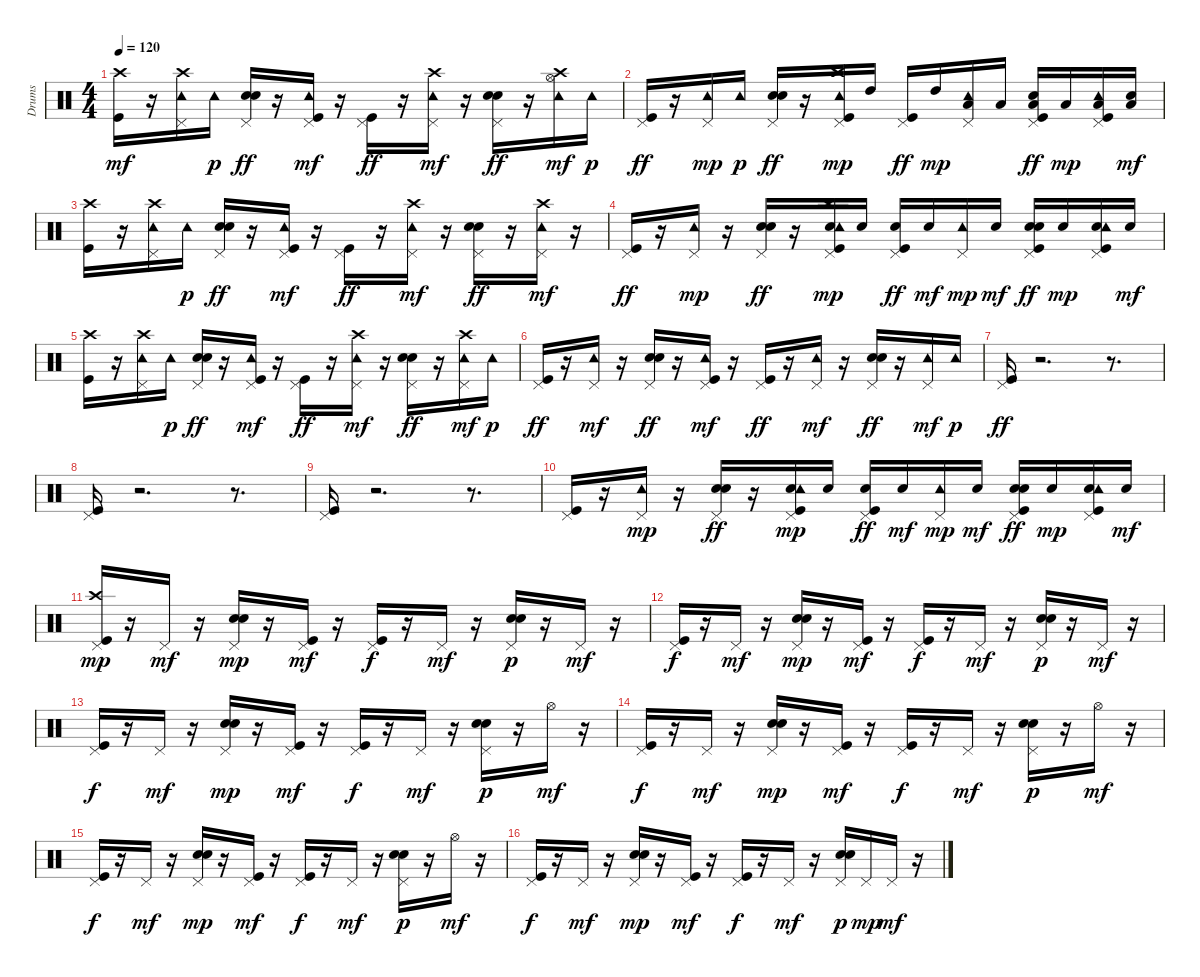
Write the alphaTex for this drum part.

\track ("Drums   " "Drums   ") {instrument percussion}
\staff {score}
\articulation defaults
\ts (4 4)
\tempo 120
\clef neutral
\ks c
("Kick (hit)" "Crash high (hit)").16{dy mf} r.16 ("Crash high (hit)" "Pedal Hi-Hat (hit)" "Tambourine (hit)").16 "Tambourine (hit)".16{dy p} ("Electric Snare (hit)" "Pedal Hi-Hat (hit)" "Hand Clap (hit)").16{dy ff} r.16 ("Kick (hit)" "Pedal Hi-Hat (hit)" "Tambourine (hit)").16{dy mf} r.16 ("Kick (hit)" "Pedal Hi-Hat (hit)").16{dy ff} r.16 ("Crash high (hit)" "Pedal Hi-Hat (hit)" "Tambourine (hit)").16{dy mf} r.16 ("Electric Snare (hit)" "Pedal Hi-Hat (hit)" "Hand Clap (hit)").16{dy ff} r.16 ("Hi-Hat (open)" "Crash high (hit)" "Tambourine (hit)").16{dy mf} "Tambourine (hit)".16{dy p} |
("Kick (hit)" "Pedal Hi-Hat (hit)").16{dy ff} r.16 ("Pedal Hi-Hat (hit)" "Tambourine (hit)").16{dy mp} "Tambourine (hit)".16{dy p} ("Electric Snare (hit)" "Pedal Hi-Hat (hit)" "Hand Clap (hit)").16{dy ff} r.16 ("Kick (hit)" "Crash high (hit)" "Pedal Hi-Hat (hit)" "Tambourine (hit)").16{dy mp} "High Tom (hit)".16 ("Kick (hit)" "Pedal Hi-Hat (hit)").16{dy ff} "High Tom (hit)".16{dy mp} ("Low Tom (hit)" "Pedal Hi-Hat (hit)" "Tambourine (hit)").16 "Low Tom (hit)".16 ("Kick (hit)" "Low Tom (hit)" "Pedal Hi-Hat (hit)" "Hand Clap (hit)").16{dy ff} "Low Tom (hit)".16{dy mp} ("Kick (hit)" "Low Floor Tom (hit)" "Pedal Hi-Hat (hit)" "Tambourine (hit)").16 ("Low Floor Tom (hit)" "Electric Snare (hit)").16{dy mf} |
("Kick (hit)" "Crash high (hit)").16 r.16 ("Crash high (hit)" "Pedal Hi-Hat (hit)" "Tambourine (hit)").16 "Tambourine (hit)".16{dy p} ("Electric Snare (hit)" "Pedal Hi-Hat (hit)" "Hand Clap (hit)").16{dy ff} r.16 ("Kick (hit)" "Pedal Hi-Hat (hit)" "Tambourine (hit)").16{dy mf} r.16 ("Kick (hit)" "Pedal Hi-Hat (hit)").16{dy ff} r.16 ("Crash high (hit)" "Pedal Hi-Hat (hit)" "Tambourine (hit)").16{dy mf} r.16 ("Electric Snare (hit)" "Pedal Hi-Hat (hit)" "Hand Clap (hit)").16{dy ff} r.16 ("Crash high (hit)" "Pedal Hi-Hat (hit)" "Tambourine (hit)").16{dy mf} r.16 |
("Kick (hit)" "Pedal Hi-Hat (hit)").16{dy ff} r.16 ("Pedal Hi-Hat (hit)" "Tambourine (hit)").16{dy mp} r.16 ("Electric Snare (hit)" "Pedal Hi-Hat (hit)" "Hand Clap (hit)").16{dy ff} r.16 ("Kick (hit)" "Crash high (hit)" "Electric Snare (hit)" "Pedal Hi-Hat (hit)" "Tambourine (hit)").16{dy mp} "Electric Snare (hit)".16 ("Kick (hit)" "Electric Snare (hit)" "Pedal Hi-Hat (hit)").16{dy ff} "Electric Snare (hit)".16{dy mf} ("Pedal Hi-Hat (hit)" "Tambourine (hit)").16{dy mp} "Electric Snare (hit)".16{dy mf} ("Kick (hit)" "Electric Snare (hit)" "Pedal Hi-Hat (hit)" "Hand Clap (hit)").16{dy ff} "Electric Snare (hit)".16{dy mp} ("Kick (hit)" "Electric Snare (hit)" "Pedal Hi-Hat (hit)" "Tambourine (hit)").16 "Electric Snare (hit)".16{dy mf} |
("Kick (hit)" "Crash high (hit)").16 r.16 ("Crash high (hit)" "Pedal Hi-Hat (hit)" "Tambourine (hit)").16 "Tambourine (hit)".16{dy p} ("Electric Snare (hit)" "Pedal Hi-Hat (hit)" "Hand Clap (hit)").16{dy ff} r.16 ("Kick (hit)" "Pedal Hi-Hat (hit)" "Tambourine (hit)").16{dy mf} r.16 ("Kick (hit)" "Pedal Hi-Hat (hit)").16{dy ff} r.16 ("Crash high (hit)" "Pedal Hi-Hat (hit)" "Tambourine (hit)").16{dy mf} r.16 ("Electric Snare (hit)" "Pedal Hi-Hat (hit)" "Hand Clap (hit)").16{dy ff} r.16 ("Crash high (hit)" "Pedal Hi-Hat (hit)" "Tambourine (hit)").16{dy mf} "Tambourine (hit)".16{dy p} |
("Kick (hit)" "Pedal Hi-Hat (hit)").16{dy ff} r.16 ("Pedal Hi-Hat (hit)" "Tambourine (hit)").16{dy mf} r.16 ("Electric Snare (hit)" "Pedal Hi-Hat (hit)" "Hand Clap (hit)").16{dy ff} r.16 ("Kick (hit)" "Pedal Hi-Hat (hit)" "Tambourine (hit)").16{dy mf} r.16 ("Kick (hit)" "Pedal Hi-Hat (hit)").16{dy ff} r.16 ("Pedal Hi-Hat (hit)" "Tambourine (hit)").16{dy mf} r.16 ("Electric Snare (hit)" "Pedal Hi-Hat (hit)" "Hand Clap (hit)").16{dy ff} r.16 ("Pedal Hi-Hat (hit)" "Tambourine (hit)").16{dy mf} "Tambourine (hit)".16{dy p} |
("Kick (hit)" "Pedal Hi-Hat (hit)").16{dy ff} r.2{d} r.8{d} |
("Kick (hit)" "Pedal Hi-Hat (hit)").16 r.2{d} r.8{d} |
("Kick (hit)" "Pedal Hi-Hat (hit)").16 r.2{d} r.8{d} |
("Kick (hit)" "Pedal Hi-Hat (hit)").16 r.16 ("Pedal Hi-Hat (hit)" "Tambourine (hit)").16{dy mp} r.16 ("Electric Snare (hit)" "Pedal Hi-Hat (hit)" "Hand Clap (hit)").16{dy ff} r.16 ("Kick (hit)" "Electric Snare (hit)" "Pedal Hi-Hat (hit)" "Tambourine (hit)").16{dy mp} "Electric Snare (hit)".16 ("Kick (hit)" "Electric Snare (hit)" "Pedal Hi-Hat (hit)").16{dy ff} "Electric Snare (hit)".16{dy mf} ("Pedal Hi-Hat (hit)" "Tambourine (hit)").16{dy mp} "Electric Snare (hit)".16{dy mf} ("Kick (hit)" "Electric Snare (hit)" "Pedal Hi-Hat (hit)" "Hand Clap (hit)").16{dy ff} "Electric Snare (hit)".16{dy mp} ("Kick (hit)" "Electric Snare (hit)" "Pedal Hi-Hat (hit)" "Tambourine (hit)").16 "Electric Snare (hit)".16{dy mf} |
("Kick (hit)" "Crash high (hit)" "Pedal Hi-Hat (hit)").16{dy mp} r.16 "Pedal Hi-Hat (hit)".16{dy mf} r.16 ("Electric Snare (hit)" "Pedal Hi-Hat (hit)" "Hand Clap (hit)").16{dy mp} r.16 ("Kick (hit)" "Pedal Hi-Hat (hit)").16{dy mf} r.16 ("Kick (hit)" "Pedal Hi-Hat (hit)").16{dy f} r.16 "Pedal Hi-Hat (hit)".16{dy mf} r.16 ("Electric Snare (hit)" "Pedal Hi-Hat (hit)" "Hand Clap (hit)").16{dy p} r.16 "Pedal Hi-Hat (hit)".16{dy mf} r.16 |
("Kick (hit)" "Pedal Hi-Hat (hit)").16{dy f} r.16 "Pedal Hi-Hat (hit)".16{dy mf} r.16 ("Electric Snare (hit)" "Pedal Hi-Hat (hit)" "Hand Clap (hit)").16{dy mp} r.16 ("Kick (hit)" "Pedal Hi-Hat (hit)").16{dy mf} r.16 ("Kick (hit)" "Pedal Hi-Hat (hit)").16{dy f} r.16 "Pedal Hi-Hat (hit)".16{dy mf} r.16 ("Electric Snare (hit)" "Pedal Hi-Hat (hit)" "Hand Clap (hit)").16{dy p} r.16 "Pedal Hi-Hat (hit)".16{dy mf} r.16 |
("Kick (hit)" "Pedal Hi-Hat (hit)").16{dy f} r.16 "Pedal Hi-Hat (hit)".16{dy mf} r.16 ("Electric Snare (hit)" "Pedal Hi-Hat (hit)" "Hand Clap (hit)").16{dy mp} r.16 ("Kick (hit)" "Pedal Hi-Hat (hit)").16{dy mf} r.16 ("Kick (hit)" "Pedal Hi-Hat (hit)").16{dy f} r.16 "Pedal Hi-Hat (hit)".16{dy mf} r.16 ("Electric Snare (hit)" "Pedal Hi-Hat (hit)" "Hand Clap (hit)").16{dy p} r.16 "Hi-Hat (open)".16{dy mf} r.16 |
("Kick (hit)" "Pedal Hi-Hat (hit)").16{dy f} r.16 "Pedal Hi-Hat (hit)".16{dy mf} r.16 ("Electric Snare (hit)" "Pedal Hi-Hat (hit)" "Hand Clap (hit)").16{dy mp} r.16 ("Kick (hit)" "Pedal Hi-Hat (hit)").16{dy mf} r.16 ("Kick (hit)" "Pedal Hi-Hat (hit)").16{dy f} r.16 "Pedal Hi-Hat (hit)".16{dy mf} r.16 ("Electric Snare (hit)" "Pedal Hi-Hat (hit)" "Hand Clap (hit)").16{dy p} r.16 "Hi-Hat (open)".16{dy mf} r.16 |
("Kick (hit)" "Pedal Hi-Hat (hit)").16{dy f} r.16 "Pedal Hi-Hat (hit)".16{dy mf} r.16 ("Electric Snare (hit)" "Pedal Hi-Hat (hit)" "Hand Clap (hit)").16{dy mp} r.16 ("Kick (hit)" "Pedal Hi-Hat (hit)").16{dy mf} r.16 ("Kick (hit)" "Pedal Hi-Hat (hit)").16{dy f} r.16 "Pedal Hi-Hat (hit)".16{dy mf} r.16 ("Electric Snare (hit)" "Pedal Hi-Hat (hit)" "Hand Clap (hit)").16{dy p} r.16 "Hi-Hat (open)".16{dy mf} r.16 |
("Kick (hit)" "Pedal Hi-Hat (hit)").16{dy f} r.16 "Pedal Hi-Hat (hit)".16{dy mf} r.16 ("Electric Snare (hit)" "Pedal Hi-Hat (hit)" "Hand Clap (hit)").16{dy mp} r.16 ("Kick (hit)" "Pedal Hi-Hat (hit)").16{dy mf} r.16 ("Kick (hit)" "Pedal Hi-Hat (hit)").16{dy f} r.16 "Pedal Hi-Hat (hit)".16{dy mf} r.16 ("Electric Snare (hit)" "Pedal Hi-Hat (hit)" "Hand Clap (hit)").16{dy p} "Pedal Hi-Hat (hit)".16{dy mp} "Pedal Hi-Hat (hit)".16{dy mf} r.16
